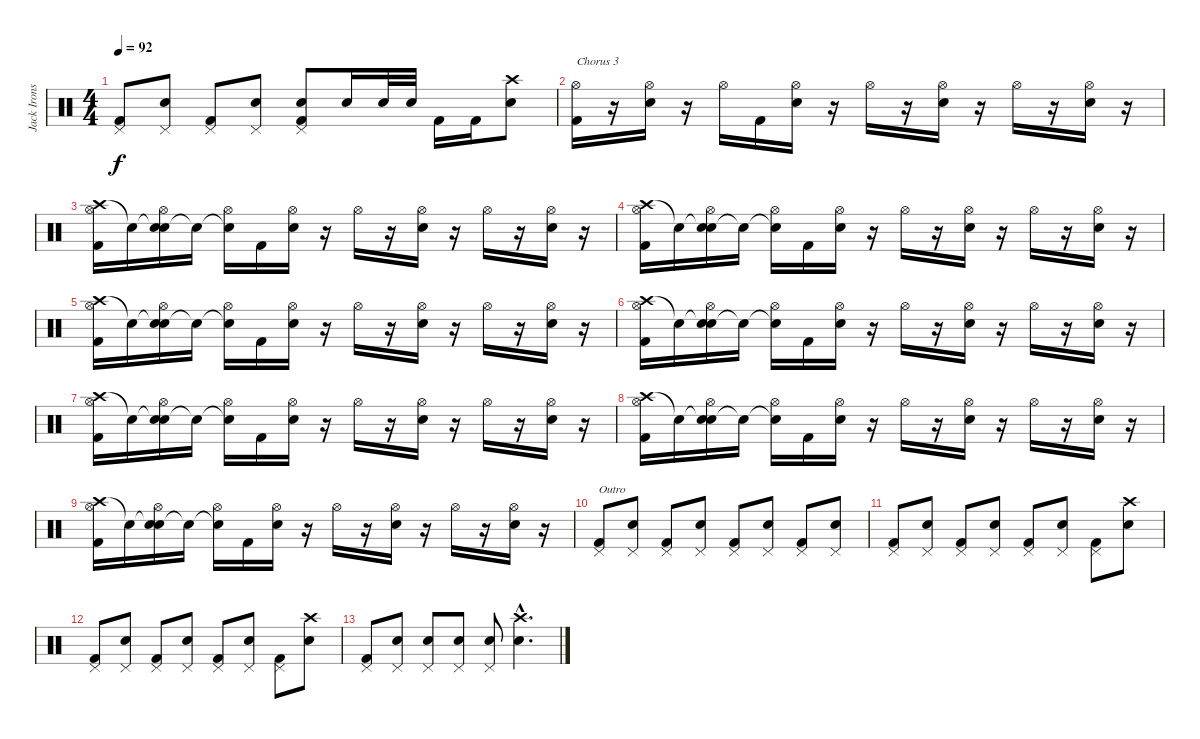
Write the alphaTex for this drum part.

\track ("Jack Irons" "Jack Irons") {instrument percussion}
\staff {score}
\articulation defaults
\ts (4 4)
\tempo 92
\clef neutral
\ks c
("Pedal Hi-Hat (hit)" "Kick (hit) 2").8{dy f} ("Pedal Hi-Hat (hit)" "Snare (hit) 2").8 ("Pedal Hi-Hat (hit)" "Kick (hit) 2").8 ("Pedal Hi-Hat (hit)" "Snare (hit) 2").8 ("Pedal Hi-Hat (hit)" "Snare (hit) 2" "Kick (hit) 2").8 "Snare (hit) 2".16 "Snare (hit) 2".32 "Snare (hit) 2".32 "Kick (hit) 2".16 "Kick (hit) 2".16 ("Crash high (hit)" "Snare (hit) 2").8 |
("Hi-Hat (open)" "Kick (hit) 2").16{txt "Chorus 3"} r.16 ("Hi-Hat (open)" "Snare (hit) 2").16 r.16 "Hi-Hat (open)".16 "Kick (hit) 2".16 ("Hi-Hat (open)" "Snare (hit) 2").16 r.16 "Hi-Hat (open)".16 r.16 ("Hi-Hat (open)" "Snare (hit) 2").16 r.16 "Hi-Hat (open)".16 r.16 ("Hi-Hat (open)" "Snare (hit) 2").16 r.16 |
("Crash high (hit)" "Hi-Hat (open)" "Kick (hit) 2").16 "Snare (hit)"{t}.16 ("Snare (hit)"{t} "Hi-Hat (open)" "Snare (hit) 2").16 "Snare (hit)"{t}.16 ("Snare (hit)"{t} "Hi-Hat (open)").16 "Kick (hit) 2".16 ("Hi-Hat (open)" "Snare (hit) 2").16 r.16 "Hi-Hat (open)".16 r.16 ("Hi-Hat (open)" "Snare (hit) 2").16 r.16 "Hi-Hat (open)".16 r.16 ("Hi-Hat (open)" "Snare (hit) 2").16 r.16 |
("Crash high (hit)" "Hi-Hat (open)" "Kick (hit) 2").16 "Snare (hit)"{t}.16 ("Snare (hit)"{t} "Hi-Hat (open)" "Snare (hit) 2").16 "Snare (hit)"{t}.16 ("Snare (hit)"{t} "Hi-Hat (open)").16 "Kick (hit) 2".16 ("Hi-Hat (open)" "Snare (hit) 2").16 r.16 "Hi-Hat (open)".16 r.16 ("Hi-Hat (open)" "Snare (hit) 2").16 r.16 "Hi-Hat (open)".16 r.16 ("Hi-Hat (open)" "Snare (hit) 2").16 r.16 |
("Crash high (hit)" "Hi-Hat (open)" "Kick (hit) 2").16 "Snare (hit)"{t}.16 ("Snare (hit)"{t} "Hi-Hat (open)" "Snare (hit) 2").16 "Snare (hit)"{t}.16 ("Snare (hit)"{t} "Hi-Hat (open)").16 "Kick (hit) 2".16 ("Hi-Hat (open)" "Snare (hit) 2").16 r.16 "Hi-Hat (open)".16 r.16 ("Hi-Hat (open)" "Snare (hit) 2").16 r.16 "Hi-Hat (open)".16 r.16 ("Hi-Hat (open)" "Snare (hit) 2").16 r.16 |
("Crash high (hit)" "Hi-Hat (open)" "Kick (hit) 2").16 "Snare (hit)"{t}.16 ("Snare (hit)"{t} "Hi-Hat (open)" "Snare (hit) 2").16 "Snare (hit)"{t}.16 ("Snare (hit)"{t} "Hi-Hat (open)").16 "Kick (hit) 2".16 ("Hi-Hat (open)" "Snare (hit) 2").16 r.16 "Hi-Hat (open)".16 r.16 ("Hi-Hat (open)" "Snare (hit) 2").16 r.16 "Hi-Hat (open)".16 r.16 ("Hi-Hat (open)" "Snare (hit) 2").16 r.16 |
("Crash high (hit)" "Hi-Hat (open)" "Kick (hit) 2").16 "Snare (hit)"{t}.16 ("Snare (hit)"{t} "Hi-Hat (open)" "Snare (hit) 2").16 "Snare (hit)"{t}.16 ("Snare (hit)"{t} "Hi-Hat (open)").16 "Kick (hit) 2".16 ("Hi-Hat (open)" "Snare (hit) 2").16 r.16 "Hi-Hat (open)".16 r.16 ("Hi-Hat (open)" "Snare (hit) 2").16 r.16 "Hi-Hat (open)".16 r.16 ("Hi-Hat (open)" "Snare (hit) 2").16 r.16 |
("Crash high (hit)" "Hi-Hat (open)" "Kick (hit) 2").16 "Snare (hit)"{t}.16 ("Snare (hit)"{t} "Hi-Hat (open)" "Snare (hit) 2").16 "Snare (hit)"{t}.16 ("Snare (hit)"{t} "Hi-Hat (open)").16 "Kick (hit) 2".16 ("Hi-Hat (open)" "Snare (hit) 2").16 r.16 "Hi-Hat (open)".16 r.16 ("Hi-Hat (open)" "Snare (hit) 2").16 r.16 "Hi-Hat (open)".16 r.16 ("Hi-Hat (open)" "Snare (hit) 2").16 r.16 |
("Crash high (hit)" "Hi-Hat (open)" "Kick (hit) 2").16 "Snare (hit)"{t}.16 ("Snare (hit)"{t} "Hi-Hat (open)" "Snare (hit) 2").16 "Snare (hit)"{t}.16 ("Snare (hit)"{t} "Hi-Hat (open)").16 "Kick (hit) 2".16 ("Hi-Hat (open)" "Snare (hit) 2").16 r.16 "Hi-Hat (open)".16 r.16 ("Hi-Hat (open)" "Snare (hit) 2").16 r.16 "Hi-Hat (open)".16 r.16 ("Hi-Hat (open)" "Snare (hit) 2").16 r.16 |
("Pedal Hi-Hat (hit)" "Kick (hit) 2").8{txt "Outro"} ("Pedal Hi-Hat (hit)" "Snare (hit) 2").8 ("Pedal Hi-Hat (hit)" "Kick (hit) 2").8 ("Pedal Hi-Hat (hit)" "Snare (hit) 2").8 ("Pedal Hi-Hat (hit)" "Kick (hit) 2").8 ("Pedal Hi-Hat (hit)" "Snare (hit) 2").8 ("Pedal Hi-Hat (hit)" "Kick (hit) 2").8 ("Pedal Hi-Hat (hit)" "Snare (hit) 2").8 |
("Pedal Hi-Hat (hit)" "Kick (hit) 2").8 ("Pedal Hi-Hat (hit)" "Snare (hit) 2").8 ("Pedal Hi-Hat (hit)" "Kick (hit) 2").8 ("Pedal Hi-Hat (hit)" "Snare (hit) 2").8 ("Pedal Hi-Hat (hit)" "Kick (hit) 2").8 ("Pedal Hi-Hat (hit)" "Snare (hit) 2").8 ("Pedal Hi-Hat (hit)" "Kick (hit) 2").8 ("Crash high (hit)" "Snare (hit) 2").8 |
("Pedal Hi-Hat (hit)" "Kick (hit) 2").8 ("Pedal Hi-Hat (hit)" "Snare (hit) 2").8 ("Pedal Hi-Hat (hit)" "Kick (hit) 2").8 ("Pedal Hi-Hat (hit)" "Snare (hit) 2").8 ("Pedal Hi-Hat (hit)" "Kick (hit) 2").8 ("Pedal Hi-Hat (hit)" "Snare (hit) 2").8 ("Pedal Hi-Hat (hit)" "Kick (hit) 2").8 ("Crash high (hit)" "Snare (hit) 2").8 |
("Pedal Hi-Hat (hit)" "Kick (hit) 2").8 ("Pedal Hi-Hat (hit)" "Snare (hit) 2").8 ("Pedal Hi-Hat (hit)" "Snare (hit) 2").8 ("Pedal Hi-Hat (hit)" "Snare (hit) 2").8 ("Pedal Hi-Hat (hit)" "Snare (hit) 2").8 ("Crash high (hit)"{hac} "Snare (hit) 2"{hac}).4{d}
